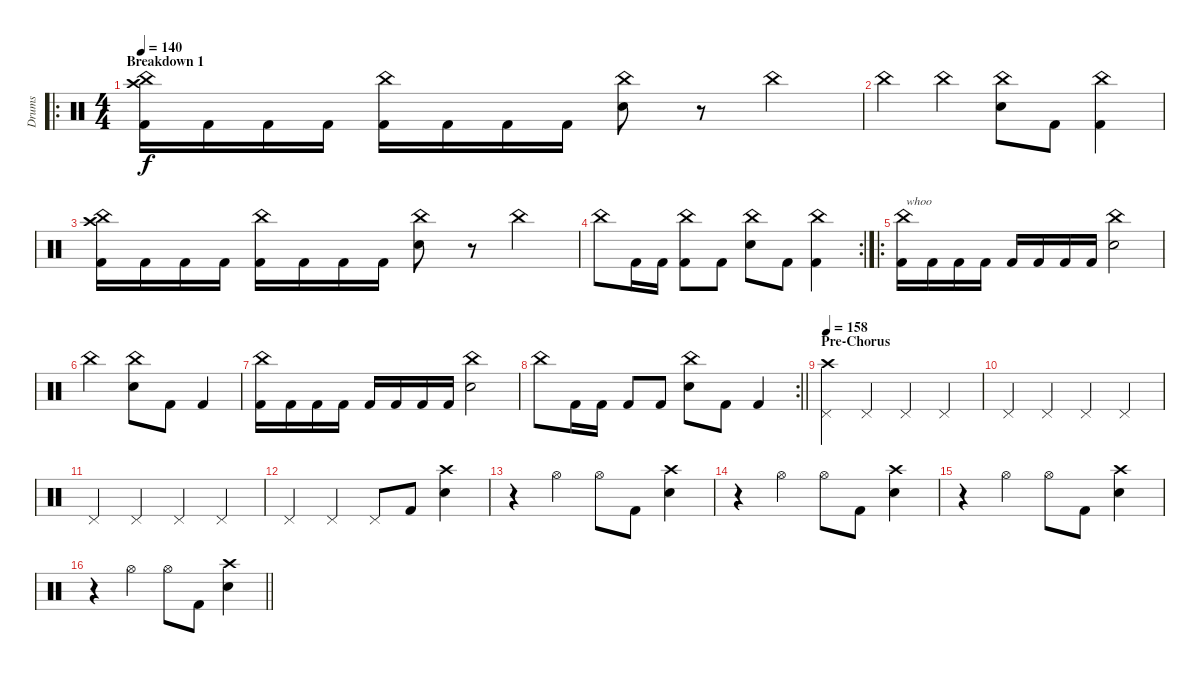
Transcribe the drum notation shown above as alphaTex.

\track ("Drums" "Drums") {instrument percussion}
\staff {score}
\articulation defaults
\ro
\ts (4 4)
\section ("" "Breakdown 1")
\tempo 140
\clef neutral
\ks c
("Crash high (hit)" "China (hit)" "Kick (hit) 2").16{dy f} "Kick (hit) 2".16 "Kick (hit) 2".16 "Kick (hit) 2".16 ("China (hit)" "Kick (hit) 2").16 "Kick (hit) 2".16 "Kick (hit) 2".16 "Kick (hit) 2".16 ("China (hit)" "Snare (hit) 2").8 r.8 "China (hit)".4 |
"China (hit)".4 "China (hit)".4 ("China (hit)" "Snare (hit) 2").8 "Kick (hit) 2".8 ("China (hit)" "Kick (hit) 2").4 |
("Crash high (hit)" "China (hit)" "Kick (hit) 2").16 "Kick (hit) 2".16 "Kick (hit) 2".16 "Kick (hit) 2".16 ("China (hit)" "Kick (hit) 2").16 "Kick (hit) 2".16 "Kick (hit) 2".16 "Kick (hit) 2".16 ("China (hit)" "Snare (hit) 2").8 r.8 "China (hit)".4 |
\rc 2 "China (hit)".8 "Kick (hit) 2".16 "Kick (hit) 2".16
("China (hit)" "Kick (hit) 2").8 "Kick (hit) 2".8 ("China (hit)" "Snare (hit) 2").8 "Kick (hit) 2".8 ("China (hit)" "Kick (hit) 2").4 |
\ro
("China (hit)" "Kick (hit) 2").16{txt "whoo"} "Kick (hit) 2".16 "Kick (hit) 2".16 "Kick (hit) 2".16 "Kick (hit) 2".16 "Kick (hit) 2".16 "Kick (hit) 2".16 "Kick (hit) 2".16 ("China (hit)" "Snare (hit) 2").2 |
"China (hit)".2 ("China (hit)" "Snare (hit) 2").8 "Kick (hit) 2".8 "Kick (hit) 2".4 |
("China (hit)" "Kick (hit) 2").16 "Kick (hit) 2".16 "Kick (hit) 2".16 "Kick (hit) 2".16 "Kick (hit) 2".16 "Kick (hit) 2".16 "Kick (hit) 2".16 "Kick (hit) 2".16 ("China (hit)" "Snare (hit) 2").2 |
\rc 2
\barLineRight lightlight "China (hit)".8 "Kick (hit) 2".16 "Kick (hit) 2".16 "Kick (hit) 2".8 "Kick (hit) 2".8
("China (hit)" "Snare (hit) 2").8 "Kick (hit) 2".8 "Kick (hit) 2".4 |
\section ("" "Pre-Chorus")
\tempo 158
("Crash high (hit)" "Pedal Hi-Hat (hit)").4 "Pedal Hi-Hat (hit)".4 "Pedal Hi-Hat (hit)".4 "Pedal Hi-Hat (hit)".4 |
"Pedal Hi-Hat (hit)".4 "Pedal Hi-Hat (hit)".4 "Pedal Hi-Hat (hit)".4 "Pedal Hi-Hat (hit)".4 |
"Pedal Hi-Hat (hit)".4 "Pedal Hi-Hat (hit)".4 "Pedal Hi-Hat (hit)".4 "Pedal Hi-Hat (hit)".4 |
"Pedal Hi-Hat (hit)".4 "Pedal Hi-Hat (hit)".4 "Pedal Hi-Hat (hit)".8 "Kick (hit) 2".8 ("Crash high (hit)" "Snare (hit) 2").4 |
r.4 "Hi-Hat (open)".4 "Hi-Hat (open)".8 "Kick (hit) 2".8 ("Crash high (hit)" "Snare (hit) 2").4 |
r.4 "Hi-Hat (open)".4 "Hi-Hat (open)".8 "Kick (hit) 2".8 ("Crash high (hit)" "Snare (hit) 2").4 |
r.4 "Hi-Hat (open)".4 "Hi-Hat (open)".8 "Kick (hit) 2".8 ("Crash high (hit)" "Snare (hit) 2").4 |
\barLineRight lightlight
r.4 "Hi-Hat (open)".4 "Hi-Hat (open)".8 "Kick (hit) 2".8 ("Crash high (hit)" "Snare (hit) 2").4
